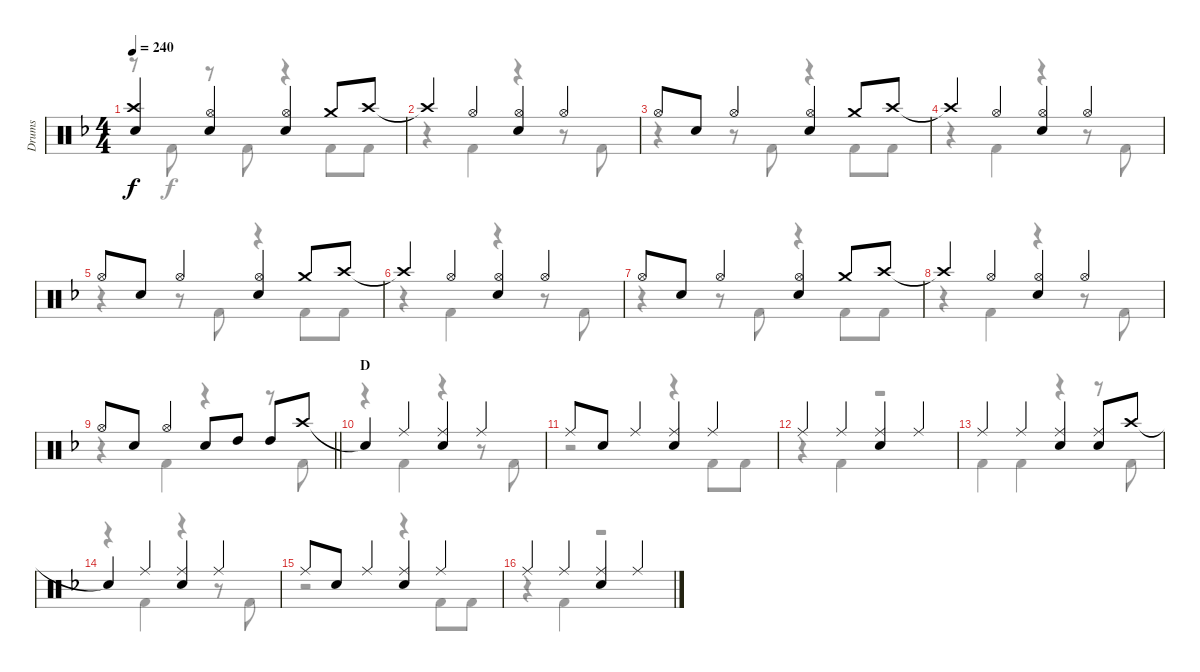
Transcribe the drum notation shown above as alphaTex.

\track ("Drums" "Drums") {instrument percussion}
\staff {score}
\articulation defaults
\voice
\ts (4 4)
\tempo 240
\clef neutral
\ks f
("Crash high (hit)" "Snare (hit) 2").4{dy f} ("Hi-Hat (open)" "Snare (hit) 2").4 ("Hi-Hat (open)" "Snare (hit) 2").4 "Crash medium (hit)".8 "Crash high (hit)".8 |
"Crash high (hit)"{t}.4 "Hi-Hat (open)".4 ("Hi-Hat (open)" "Snare (hit) 2").4 "Hi-Hat (open)".4 |
"Hi-Hat (open)".8 "Snare (hit) 2".8 "Hi-Hat (open)".4 ("Hi-Hat (open)" "Snare (hit) 2").4 "Crash medium (hit)".8 "Crash high (hit)".8 |
"Crash high (hit)"{t}.4 "Hi-Hat (open)".4 ("Hi-Hat (open)" "Snare (hit) 2").4 "Hi-Hat (open)".4 |
"Hi-Hat (open)".8 "Snare (hit) 2".8 "Hi-Hat (open)".4 ("Hi-Hat (open)" "Snare (hit) 2").4 "Crash medium (hit)".8 "Crash high (hit)".8 |
"Crash high (hit)"{t}.4 "Hi-Hat (open)".4 ("Hi-Hat (open)" "Snare (hit) 2").4 "Hi-Hat (open)".4 |
"Hi-Hat (open)".8 "Snare (hit) 2".8 "Hi-Hat (open)".4 ("Hi-Hat (open)" "Snare (hit) 2").4 "Crash medium (hit)".8 "Crash high (hit)".8 |
"Crash high (hit)"{t}.4 "Hi-Hat (open)".4 ("Hi-Hat (open)" "Snare (hit) 2").4 "Hi-Hat (open)".4 |
\barLineRight lightlight "Hi-Hat (open)".8 "Snare (hit) 2".8 "Hi-Hat (open)".4 "Snare (hit) 2".8 "High Tom (hit)".8 "High Tom (hit)".8 "Crash high (hit)".8
|
\section ("" "D")
"Snare (hit)"{t}.4 "Ride (middle)".4 ("Ride (middle)" "Snare (hit) 2").4 "Ride (middle)".4 |
"Ride (middle)".8 "Snare (hit) 2".8 "Ride (middle)".4 ("Ride (middle)" "Snare (hit) 2").4 "Ride (middle)".4 |
"Ride (middle)".4 "Ride (middle)".4 ("Ride (middle)" "Snare (hit) 2").4 "Ride (middle)".4 |
"Ride (middle)".4 "Ride (middle)".4 ("Ride (middle)" "Snare (hit) 2").4 ("Ride (middle)" "Snare (hit) 2").8 "Crash high (hit)".8 |
"Snare (hit)"{t}.4 "Ride (middle)".4 ("Ride (middle)" "Snare (hit) 2").4 "Ride (middle)".4 |
"Ride (middle)".8 "Snare (hit) 2".8 "Ride (middle)".4 ("Ride (middle)" "Snare (hit) 2").4 "Ride (middle)".4 |
"Ride (middle)".4 "Ride (middle)".4 ("Ride (middle)" "Snare (hit) 2").4 "Ride (middle)".4
\voice
\clef neutral
\ottava regular
\simile none
\ks f
r.8{dy f} "Kick (hit) 2".8 r.8 "Kick (hit) 2".8 r.4 "Kick (hit) 2".8 "Kick (hit) 2".8 |
r.4 "Kick (hit) 2".4 r.4 r.8 "Kick (hit) 2".8 |
r.4 r.8 "Kick (hit) 2".8 r.4 "Kick (hit) 2".8 "Kick (hit) 2".8 |
r.4 "Kick (hit) 2".4 r.4 r.8 "Kick (hit) 2".8 |
r.4 r.8 "Kick (hit) 2".8 r.4 "Kick (hit) 2".8 "Kick (hit) 2".8 |
r.4 "Kick (hit) 2".4 r.4 r.8 "Kick (hit) 2".8 |
r.4 r.8 "Kick (hit) 2".8 r.4 "Kick (hit) 2".8 "Kick (hit) 2".8 |
r.4 "Kick (hit) 2".4 r.4 r.8 "Kick (hit) 2".8 |
\barLineRight lightlight
r.4 "Kick (hit) 2".4 r.4 r.8 "Kick (hit) 2".8 |
r.4 "Kick (hit) 2".4 r.4 r.8 "Kick (hit) 2".8 |
r.2 r.4 "Kick (hit) 2".8 "Kick (hit) 2".8 |
r.4 "Kick (hit) 2".4 r.2 |
"Kick (hit) 2".4 "Kick (hit) 2".4 r.4 r.8 "Kick (hit) 2".8 |
r.4 "Kick (hit) 2".4 r.4 r.8 "Kick (hit) 2".8 |
r.2 r.4 "Kick (hit) 2".8 "Kick (hit) 2".8 |
r.4 "Kick (hit) 2".4 r.2
